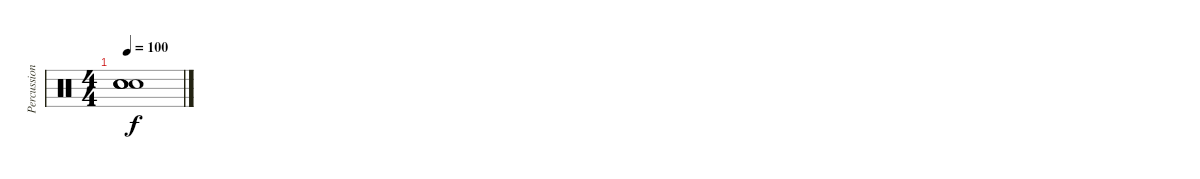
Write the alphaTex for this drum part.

\track ("Percussion" "Percussion") {instrument percussion}
\staff {score}
\articulation defaults
\ts (4 4)
\tempo 100
\clef neutral
\ks c
("Snare (hit)"{t} "Snare (hit)"{t} "Snare (hit)"{t} "Snare (hit)"{t}).1{dy f}
